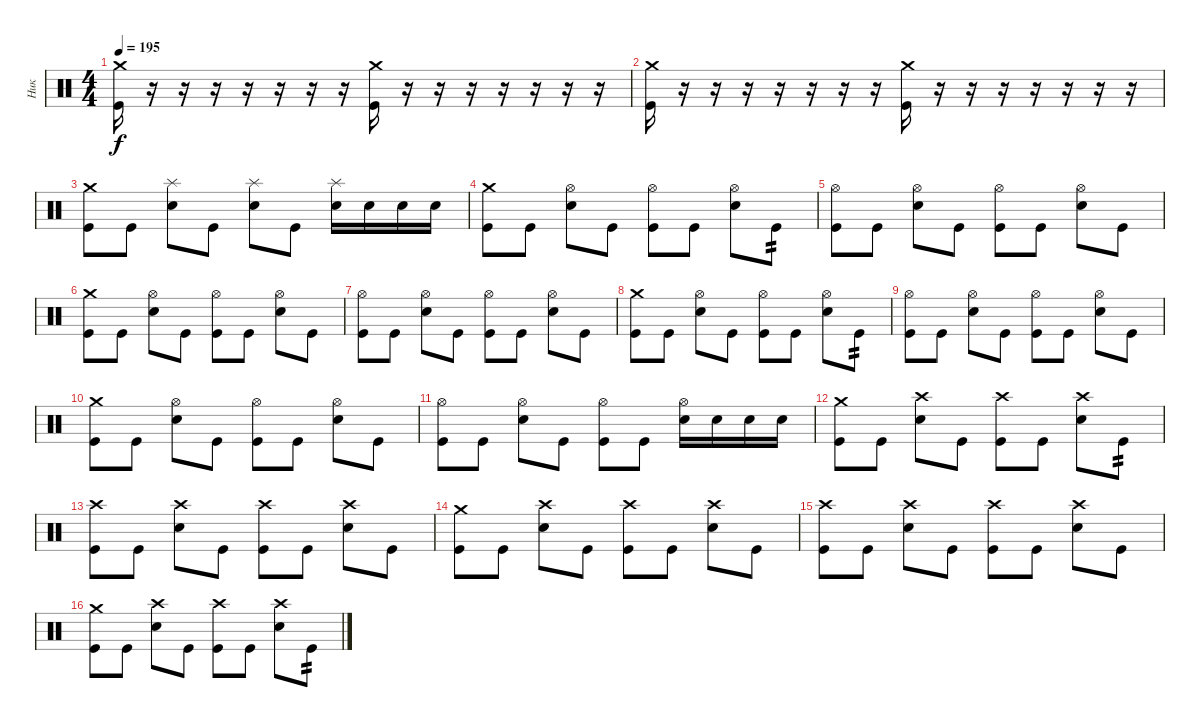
\track ("Ник" "Ник") {instrument percussion}
\staff {score}
\articulation defaults
\ts (4 4)
\tempo 195
\clef neutral
\ks c
("Crash medium (hit)" "Kick (hit)").16{dy f} r.16 r.16 r.16 r.16 r.16 r.16 r.16 ("Crash medium (hit)" "Kick (hit)").16 r.16 r.16 r.16 r.16 r.16 r.16 r.16 |
("Crash medium (hit)" "Kick (hit)").16 r.16 r.16 r.16 r.16 r.16 r.16 r.16 ("Crash medium (hit)" "Kick (hit)").16 r.16 r.16 r.16 r.16 r.16 r.16 r.16 |
("Crash medium (hit)" "Kick (hit)").8 "Kick (hit)".8 ("Splash (hit)" "Snare (hit) 2").8 "Kick (hit)".8 ("Splash (hit)" "Snare (hit) 2").8 "Kick (hit)".8 ("Splash (hit)" "Snare (hit) 2").16 "Snare (hit) 2".16 "Snare (hit) 2".16 "Snare (hit) 2".16 |
("Crash medium (hit)" "Kick (hit)").8 "Kick (hit)".8 ("Hi-Hat (open)" "Snare (hit) 2").8 "Kick (hit)".8 ("Hi-Hat (open)" "Kick (hit)").8 "Kick (hit)".8 ("Hi-Hat (open)" "Snare (hit) 2").8 "Kick (hit)".8{tp 2} |
("Hi-Hat (open)" "Kick (hit)").8 "Kick (hit)".8 ("Hi-Hat (open)" "Snare (hit) 2").8 "Kick (hit)".8 ("Hi-Hat (open)" "Kick (hit)").8 "Kick (hit)".8 ("Hi-Hat (open)" "Snare (hit) 2").8 "Kick (hit)".8 |
("Crash medium (hit)" "Kick (hit)").8 "Kick (hit)".8 ("Hi-Hat (open)" "Snare (hit) 2").8 "Kick (hit)".8 ("Hi-Hat (open)" "Kick (hit)").8 "Kick (hit)".8 ("Hi-Hat (open)" "Snare (hit) 2").8 "Kick (hit)".8 |
("Hi-Hat (open)" "Kick (hit)").8 "Kick (hit)".8 ("Hi-Hat (open)" "Snare (hit) 2").8 "Kick (hit)".8 ("Hi-Hat (open)" "Kick (hit)").8 "Kick (hit)".8 ("Hi-Hat (open)" "Snare (hit) 2").8 "Kick (hit)".8 |
("Crash medium (hit)" "Kick (hit)").8 "Kick (hit)".8 ("Hi-Hat (open)" "Snare (hit) 2").8 "Kick (hit)".8 ("Hi-Hat (open)" "Kick (hit)").8 "Kick (hit)".8 ("Hi-Hat (open)" "Snare (hit) 2").8 "Kick (hit)".8{tp 2} |
("Hi-Hat (open)" "Kick (hit)").8 "Kick (hit)".8 ("Hi-Hat (open)" "Snare (hit) 2").8 "Kick (hit)".8 ("Hi-Hat (open)" "Kick (hit)").8 "Kick (hit)".8 ("Hi-Hat (open)" "Snare (hit) 2").8 "Kick (hit)".8 |
("Crash medium (hit)" "Kick (hit)").8 "Kick (hit)".8 ("Hi-Hat (open)" "Snare (hit) 2").8 "Kick (hit)".8 ("Hi-Hat (open)" "Kick (hit)").8 "Kick (hit)".8 ("Hi-Hat (open)" "Snare (hit) 2").8 "Kick (hit)".8 |
("Hi-Hat (open)" "Kick (hit)").8 "Kick (hit)".8 ("Hi-Hat (open)" "Snare (hit) 2").8 "Kick (hit)".8 ("Hi-Hat (open)" "Kick (hit)").8 "Kick (hit)".8 ("Hi-Hat (open)" "Snare (hit) 2").16 "Snare (hit) 2".16 "Snare (hit) 2".16 "Snare (hit) 2".16 |
("Crash medium (hit)" "Kick (hit)").8 "Kick (hit)".8 ("Crash high (hit)" "Snare (hit) 2").8 "Kick (hit)".8 ("Crash high (hit)" "Kick (hit)").8 "Kick (hit)".8 ("Crash high (hit)" "Snare (hit) 2").8 "Kick (hit)".8{tp 2} |
("Crash high (hit)" "Kick (hit)").8 "Kick (hit)".8 ("Crash high (hit)" "Snare (hit) 2").8 "Kick (hit)".8 ("Crash high (hit)" "Kick (hit)").8 "Kick (hit)".8 ("Crash high (hit)" "Snare (hit) 2").8 "Kick (hit)".8 |
("Crash medium (hit)" "Kick (hit)").8 "Kick (hit)".8 ("Crash high (hit)" "Snare (hit) 2").8 "Kick (hit)".8 ("Crash high (hit)" "Kick (hit)").8 "Kick (hit)".8 ("Crash high (hit)" "Snare (hit) 2").8 "Kick (hit)".8 |
("Crash high (hit)" "Kick (hit)").8 "Kick (hit)".8 ("Crash high (hit)" "Snare (hit) 2").8 "Kick (hit)".8 ("Crash high (hit)" "Kick (hit)").8 "Kick (hit)".8 ("Crash high (hit)" "Snare (hit) 2").8 "Kick (hit)".8 |
("Crash medium (hit)" "Kick (hit)").8 "Kick (hit)".8 ("Crash high (hit)" "Snare (hit) 2").8 "Kick (hit)".8 ("Crash high (hit)" "Kick (hit)").8 "Kick (hit)".8 ("Crash high (hit)" "Snare (hit) 2").8 "Kick (hit)".8{tp 2}
